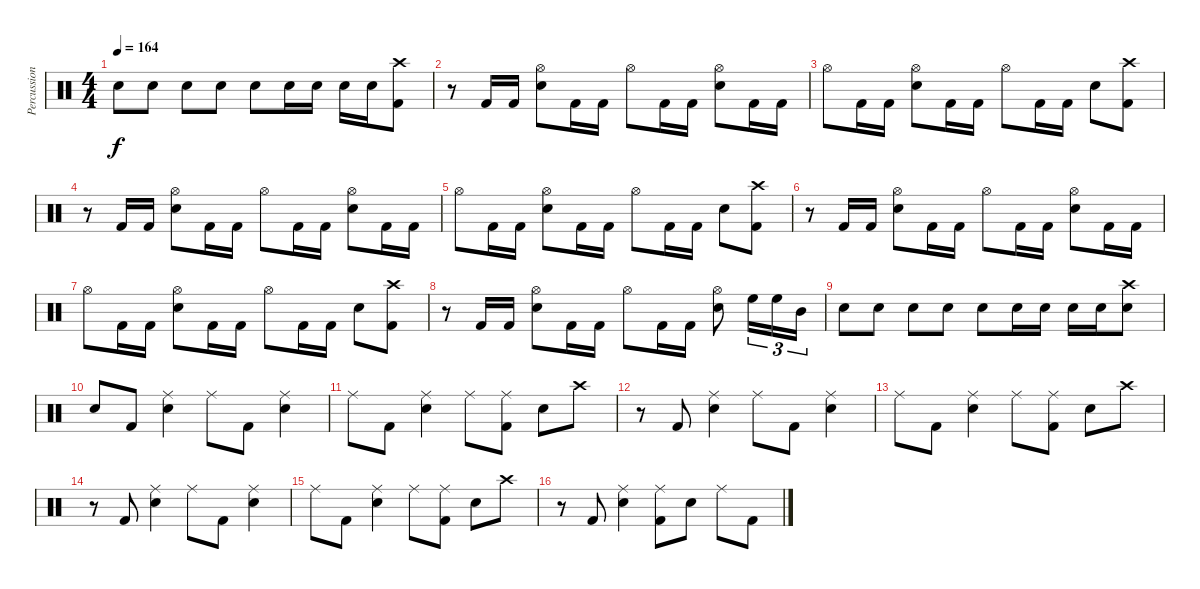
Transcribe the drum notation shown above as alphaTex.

\track ("Percussion" "Percussion") {instrument percussion}
\staff {score}
\articulation defaults
\ts (4 4)
\tempo 164
\clef neutral
\ks c "Snare (hit) 2".8{dy f} "Snare (hit) 2".8 "Snare (hit) 2".8 "Snare (hit) 2".8 "Snare (hit) 2".8 "Snare (hit) 2".16 "Snare (hit) 2".16 "Snare (hit) 2".16 "Snare (hit) 2".16
("Crash high (hit)" "Kick (hit) 2").8 |
r.8 "Kick (hit) 2".16 "Kick (hit) 2".16 ("Hi-Hat (open)" "Snare (hit) 2").8 "Kick (hit) 2".16 "Kick (hit) 2".16 "Hi-Hat (open)".8 "Kick (hit) 2".16 "Kick (hit) 2".16 ("Hi-Hat (open)" "Snare (hit) 2").8 "Kick (hit) 2".16 "Kick (hit) 2".16 |
"Hi-Hat (open)".8 "Kick (hit) 2".16 "Kick (hit) 2".16 ("Hi-Hat (open)" "Snare (hit) 2").8 "Kick (hit) 2".16 "Kick (hit) 2".16 "Hi-Hat (open)".8 "Kick (hit) 2".16 "Kick (hit) 2".16 "Snare (hit) 2".8 ("Crash high (hit)" "Kick (hit) 2").8 |
r.8 "Kick (hit) 2".16 "Kick (hit) 2".16 ("Hi-Hat (open)" "Snare (hit) 2").8 "Kick (hit) 2".16 "Kick (hit) 2".16 "Hi-Hat (open)".8 "Kick (hit) 2".16 "Kick (hit) 2".16 ("Hi-Hat (open)" "Snare (hit) 2").8 "Kick (hit) 2".16 "Kick (hit) 2".16 |
"Hi-Hat (open)".8 "Kick (hit) 2".16 "Kick (hit) 2".16 ("Hi-Hat (open)" "Snare (hit) 2").8 "Kick (hit) 2".16 "Kick (hit) 2".16 "Hi-Hat (open)".8 "Kick (hit) 2".16 "Kick (hit) 2".16 "Snare (hit) 2".8 ("Crash high (hit)" "Kick (hit) 2").8 |
r.8 "Kick (hit) 2".16 "Kick (hit) 2".16 ("Hi-Hat (open)" "Snare (hit) 2").8 "Kick (hit) 2".16 "Kick (hit) 2".16 "Hi-Hat (open)".8 "Kick (hit) 2".16 "Kick (hit) 2".16 ("Hi-Hat (open)" "Snare (hit) 2").8 "Kick (hit) 2".16 "Kick (hit) 2".16 |
"Hi-Hat (open)".8 "Kick (hit) 2".16 "Kick (hit) 2".16 ("Hi-Hat (open)" "Snare (hit) 2").8 "Kick (hit) 2".16 "Kick (hit) 2".16 "Hi-Hat (open)".8 "Kick (hit) 2".16 "Kick (hit) 2".16 "Snare (hit) 2".8 ("Crash high (hit)" "Kick (hit) 2").8 |
r.8 "Kick (hit) 2".16 "Kick (hit) 2".16 ("Hi-Hat (open)" "Snare (hit) 2").8 "Kick (hit) 2".16 "Kick (hit) 2".16 "Hi-Hat (open)".8 "Kick (hit) 2".16 "Kick (hit) 2".16 ("Hi-Hat (open)" "Snare (hit) 2").8 "High Floor Tom (hit)".16{tu (3 2)} "High Floor Tom (hit)".16{tu (3 2)} "Mid Tom (hit)".16{tu (3 2)} |
"Snare (hit) 2".8 "Snare (hit) 2".8 "Snare (hit) 2".8 "Snare (hit) 2".8 "Snare (hit) 2".8 "Snare (hit) 2".16 "Snare (hit) 2".16 "Snare (hit) 2".16 "Snare (hit) 2".16 ("Crash high (hit)" "Snare (hit) 2").8 |
"Snare (hit) 2".8 "Kick (hit) 2".8 ("Ride (middle)" "Snare (hit) 2").4 "Ride (middle)".8 "Kick (hit) 2".8 ("Ride (middle)" "Snare (hit) 2").4 |
"Ride (middle)".8 "Kick (hit) 2".8 ("Ride (middle)" "Snare (hit) 2").4 "Ride (middle)".8 ("Ride (middle)" "Kick (hit) 2").8 "Snare (hit) 2".8 "Crash high (hit)".8 |
r.8 "Kick (hit) 2".8 ("Ride (middle)" "Snare (hit) 2").4 "Ride (middle)".8 "Kick (hit) 2".8 ("Ride (middle)" "Snare (hit) 2").4 |
"Ride (middle)".8 "Kick (hit) 2".8 ("Ride (middle)" "Snare (hit) 2").4 "Ride (middle)".8 ("Ride (middle)" "Kick (hit) 2").8 "Snare (hit) 2".8 "Crash high (hit)".8 |
r.8 "Kick (hit) 2".8 ("Ride (middle)" "Snare (hit) 2").4 "Ride (middle)".8 "Kick (hit) 2".8 ("Ride (middle)" "Snare (hit) 2").4 |
"Ride (middle)".8 "Kick (hit) 2".8 ("Ride (middle)" "Snare (hit) 2").4 "Ride (middle)".8 ("Ride (middle)" "Kick (hit) 2").8 "Snare (hit) 2".8 "Crash high (hit)".8 |
r.8 "Kick (hit) 2".8 ("Ride (middle)" "Snare (hit) 2").4 ("Ride (middle)" "Kick (hit) 2").8 "Snare (hit) 2".8 "Ride (middle)".8 "Kick (hit) 2".8
